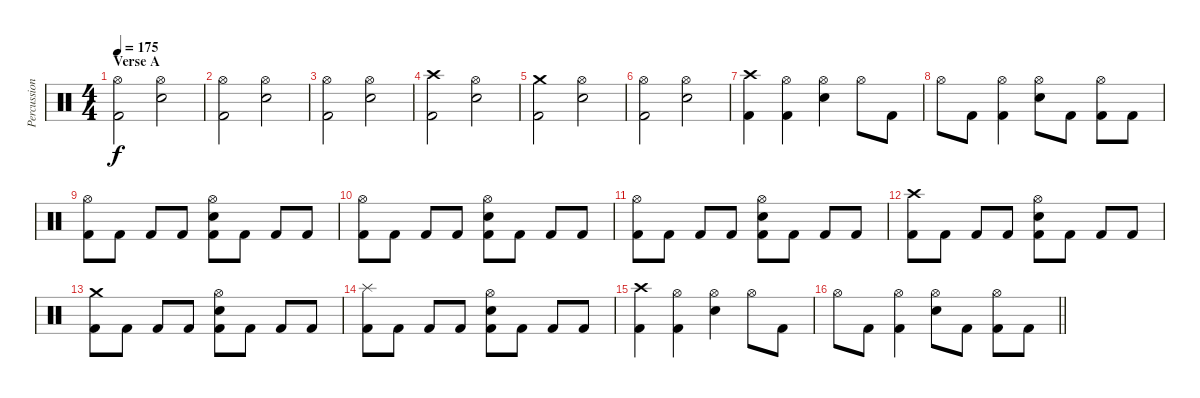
\track ("Percussion" "Percussion") {instrument percussion}
\staff {score}
\articulation defaults
\ts (4 4)
\section ("" "Verse A")
\tempo 175
\clef neutral
\ks c
("Hi-Hat (open)" "Kick (hit) 2").2{dy f} ("Hi-Hat (open)" "Electric Snare (hit)").2 |
("Hi-Hat (open)" "Kick (hit) 2").2 ("Hi-Hat (open)" "Electric Snare (hit)").2 |
("Hi-Hat (open)" "Kick (hit) 2").2 ("Hi-Hat (open)" "Electric Snare (hit)").2 |
("Crash high (hit)" "Kick (hit) 2").2 ("Hi-Hat (open)" "Electric Snare (hit)").2 |
("Crash medium (hit)" "Kick (hit) 2").2 ("Hi-Hat (open)" "Electric Snare (hit)").2 |
("Hi-Hat (open)" "Kick (hit) 2").2 ("Hi-Hat (open)" "Electric Snare (hit)").2 |
("Crash high (hit)" "Kick (hit) 2").4 ("Hi-Hat (open)" "Kick (hit) 2").4 ("Hi-Hat (open)" "Electric Snare (hit)").4 "Hi-Hat (open)".8 "Kick (hit) 2".8 |
"Hi-Hat (open)".8 "Kick (hit) 2".8 ("Hi-Hat (open)" "Kick (hit) 2").4 ("Hi-Hat (open)" "Electric Snare (hit)").8 "Kick (hit) 2".8 ("Hi-Hat (open)" "Kick (hit) 2").8 "Kick (hit) 2".8 |
("Hi-Hat (open)" "Kick (hit) 2").8 "Kick (hit) 2".8 "Kick (hit) 2".8 "Kick (hit) 2".8 ("Hi-Hat (open)" "Electric Snare (hit)" "Kick (hit) 2").8 "Kick (hit) 2".8 "Kick (hit) 2".8 "Kick (hit) 2".8 |
("Hi-Hat (open)" "Kick (hit) 2").8 "Kick (hit) 2".8 "Kick (hit) 2".8 "Kick (hit) 2".8 ("Hi-Hat (open)" "Electric Snare (hit)" "Kick (hit) 2").8 "Kick (hit) 2".8 "Kick (hit) 2".8 "Kick (hit) 2".8 |
("Hi-Hat (open)" "Kick (hit) 2").8 "Kick (hit) 2".8 "Kick (hit) 2".8 "Kick (hit) 2".8 ("Hi-Hat (open)" "Electric Snare (hit)" "Kick (hit) 2").8 "Kick (hit) 2".8 "Kick (hit) 2".8 "Kick (hit) 2".8 |
("Crash high (hit)" "Kick (hit) 2").8 "Kick (hit) 2".8 "Kick (hit) 2".8 "Kick (hit) 2".8 ("Hi-Hat (open)" "Electric Snare (hit)" "Kick (hit) 2").8 "Kick (hit) 2".8 "Kick (hit) 2".8 "Kick (hit) 2".8 |
("Crash medium (hit)" "Kick (hit) 2").8 "Kick (hit) 2".8 "Kick (hit) 2".8 "Kick (hit) 2".8 ("Hi-Hat (open)" "Electric Snare (hit)" "Kick (hit) 2").8 "Kick (hit) 2".8 "Kick (hit) 2".8 "Kick (hit) 2".8 |
("Splash (hit)" "Kick (hit) 2").8 "Kick (hit) 2".8 "Kick (hit) 2".8 "Kick (hit) 2".8 ("Hi-Hat (open)" "Electric Snare (hit)" "Kick (hit) 2").8 "Kick (hit) 2".8 "Kick (hit) 2".8 "Kick (hit) 2".8 |
("Crash high (hit)" "Kick (hit) 2").4 ("Hi-Hat (open)" "Kick (hit) 2").4 ("Hi-Hat (open)" "Electric Snare (hit)").4 "Hi-Hat (open)".8 "Kick (hit) 2".8 |
\barLineRight lightlight "Hi-Hat (open)".8 "Kick (hit) 2".8
("Hi-Hat (open)" "Kick (hit) 2").4 ("Hi-Hat (open)" "Electric Snare (hit)").8 "Kick (hit) 2".8 ("Hi-Hat (open)" "Kick (hit) 2").8 "Kick (hit) 2".8
